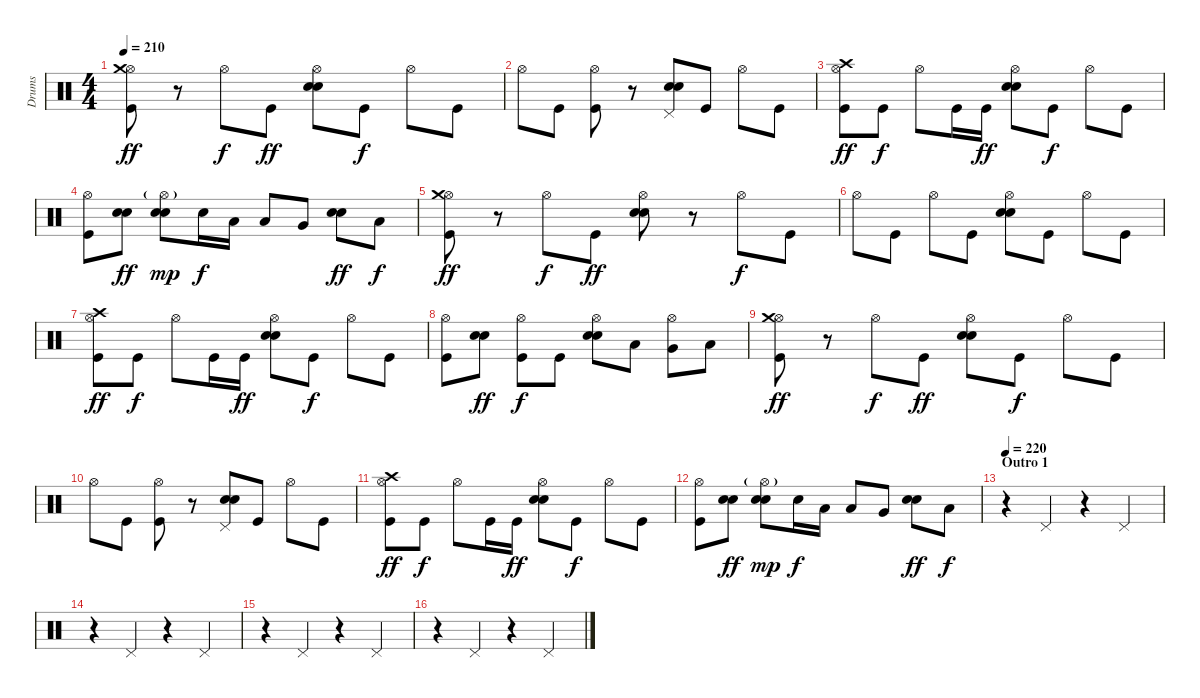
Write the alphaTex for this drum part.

\track ("Drums" "Drums") {instrument percussion}
\staff {score}
\articulation defaults
\ts (4 4)
\tempo 210
\clef neutral
\ks c
("Kick (hit)" "Hi-Hat (open)" "Crash medium (hit)").8{dy ff} r.8 "Hi-Hat (open)".8{dy f} "Kick (hit)".8{dy ff} ("Electric Snare (hit)" "Electric Snare (hit)" "Hi-Hat (open)").8 "Kick (hit)".8{dy f} "Hi-Hat (open)".8 "Kick (hit)".8 |
"Hi-Hat (open)".8 "Kick (hit)".8 ("Kick (hit)" "Hi-Hat (open)").8 r.8 ("Electric Snare (hit)" "Electric Snare (hit)" "Pedal Hi-Hat (hit)").8 "Kick (hit)".8 "Hi-Hat (open)".8 "Kick (hit)".8 |
("Kick (hit)" "Hi-Hat (open)" "Crash high (hit)").8{dy ff} "Kick (hit)".8{dy f} "Hi-Hat (open)".8 "Kick (hit)".16 "Kick (hit)".16{dy ff} ("Electric Snare (hit)" "Electric Snare (hit)" "Hi-Hat (open)").8 "Kick (hit)".8{dy f} "Hi-Hat (open)".8 "Kick (hit)".8 |
("Kick (hit)" "Hi-Hat (open)").8 ("Electric Snare (hit)" "Electric Snare (hit)").8{dy ff} ("Electric Snare (hit)" "Electric Snare (hit)" "Hi-Hat (open)"{g}).8{dy mp} "Electric Snare (hit)".16{dy f} "Low Tom (hit)".16 "Low Tom (hit)".8 "Very Low Tom (hit)".8 ("Electric Snare (hit)" "Electric Snare (hit)").8{dy ff} "Low Floor Tom (hit)".8{dy f} |
("Kick (hit)" "Hi-Hat (open)" "Crash medium (hit)").8{dy ff} r.8 "Hi-Hat (open)".8{dy f} "Kick (hit)".8{dy ff} ("Electric Snare (hit)" "Electric Snare (hit)" "Hi-Hat (open)").8 r.8 "Hi-Hat (open)".8{dy f} "Kick (hit)".8 |
"Hi-Hat (open)".8 "Kick (hit)".8 "Hi-Hat (open)".8 "Kick (hit)".8 ("Electric Snare (hit)" "Electric Snare (hit)" "Hi-Hat (open)").8 "Kick (hit)".8 "Hi-Hat (open)".8 "Kick (hit)".8 |
("Kick (hit)" "Hi-Hat (open)" "Crash high (hit)").8{dy ff} "Kick (hit)".8{dy f} "Hi-Hat (open)".8 "Kick (hit)".16 "Kick (hit)".16{dy ff} ("Electric Snare (hit)" "Electric Snare (hit)" "Hi-Hat (open)").8 "Kick (hit)".8{dy f} "Hi-Hat (open)".8 "Kick (hit)".8 |
("Kick (hit)" "Hi-Hat (open)").8 ("Electric Snare (hit)" "Electric Snare (hit)").8{dy ff} ("Kick (hit)" "Hi-Hat (open)").8{dy f} "Kick (hit)".8 ("Electric Snare (hit)" "Electric Snare (hit)" "Hi-Hat (open)").8 "Low Tom (hit)".8 ("Very Low Tom (hit)" "Hi-Hat (open)").8 "Low Floor Tom (hit)".8 |
("Kick (hit)" "Hi-Hat (open)" "Crash medium (hit)").8{dy ff} r.8 "Hi-Hat (open)".8{dy f} "Kick (hit)".8{dy ff} ("Electric Snare (hit)" "Electric Snare (hit)" "Hi-Hat (open)").8 "Kick (hit)".8{dy f} "Hi-Hat (open)".8 "Kick (hit)".8 |
"Hi-Hat (open)".8 "Kick (hit)".8 ("Kick (hit)" "Hi-Hat (open)").8 r.8 ("Electric Snare (hit)" "Electric Snare (hit)" "Pedal Hi-Hat (hit)").8 "Kick (hit)".8 "Hi-Hat (open)".8 "Kick (hit)".8 |
("Kick (hit)" "Hi-Hat (open)" "Crash high (hit)").8{dy ff} "Kick (hit)".8{dy f} "Hi-Hat (open)".8 "Kick (hit)".16 "Kick (hit)".16{dy ff} ("Electric Snare (hit)" "Electric Snare (hit)" "Hi-Hat (open)").8 "Kick (hit)".8{dy f} "Hi-Hat (open)".8 "Kick (hit)".8 |
("Kick (hit)" "Hi-Hat (open)").8 ("Electric Snare (hit)" "Electric Snare (hit)").8{dy ff} ("Electric Snare (hit)" "Electric Snare (hit)" "Hi-Hat (open)"{g}).8{dy mp} "Electric Snare (hit)".16{dy f} "Low Tom (hit)".16 "Low Tom (hit)".8 "Very Low Tom (hit)".8 ("Electric Snare (hit)" "Electric Snare (hit)").8{dy ff} "Low Floor Tom (hit)".8{dy f} |
\section ("" "Outro 1")
\tempo 220
r.4 "Pedal Hi-Hat (hit)".4 r.4 "Pedal Hi-Hat (hit)".4 |
r.4 "Pedal Hi-Hat (hit)".4 r.4 "Pedal Hi-Hat (hit)".4 |
r.4 "Pedal Hi-Hat (hit)".4 r.4 "Pedal Hi-Hat (hit)".4 |
r.4 "Pedal Hi-Hat (hit)".4 r.4 "Pedal Hi-Hat (hit)".4
